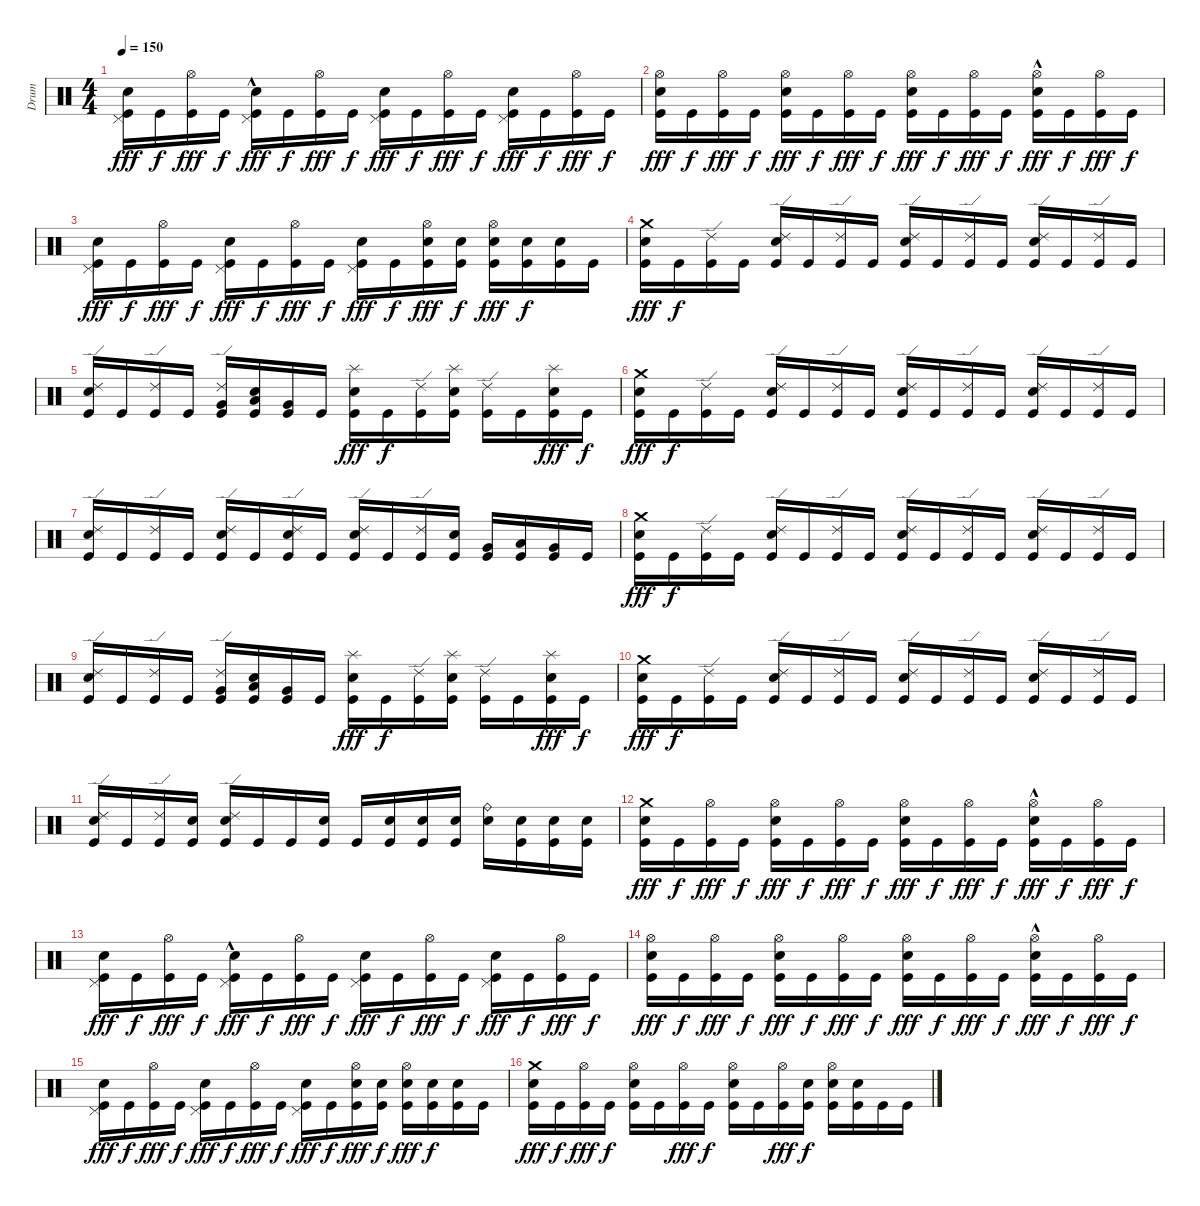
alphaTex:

\track ("Drum" "Drum") {instrument percussion}
\staff {score}
\articulation defaults
\ts (4 4)
\tempo 150
\clef neutral
\ks c
("Pedal Hi-Hat (hit)" "Snare (hit) 2" "Kick (hit)").16{dy fff} "Kick (hit)".16{dy f} ("Hi-Hat (open)" "Kick (hit)").16{dy fff} "Kick (hit)".16{dy f} ("Pedal Hi-Hat (hit)"{hac} "Snare (hit) 2" "Kick (hit)").16{dy fff} "Kick (hit)".16{dy f} ("Hi-Hat (open)" "Kick (hit)").16{dy fff} "Kick (hit)".16{dy f} ("Pedal Hi-Hat (hit)" "Snare (hit) 2" "Kick (hit)").16{dy fff} "Kick (hit)".16{dy f} ("Hi-Hat (open)" "Kick (hit)").16{dy fff} "Kick (hit)".16{dy f} ("Pedal Hi-Hat (hit)" "Snare (hit) 2" "Kick (hit)").16{dy fff} "Kick (hit)".16{dy f} ("Hi-Hat (open)" "Kick (hit)").16{dy fff} "Kick (hit)".16{dy f} |
("Hi-Hat (open)" "Snare (hit) 2" "Kick (hit)").16{dy fff} "Kick (hit)".16{dy f} ("Hi-Hat (open)" "Kick (hit)").16{dy fff} "Kick (hit)".16{dy f} ("Hi-Hat (open)" "Snare (hit) 2" "Kick (hit)").16{dy fff} "Kick (hit)".16{dy f} ("Hi-Hat (open)" "Kick (hit)").16{dy fff} "Kick (hit)".16{dy f} ("Hi-Hat (open)" "Snare (hit) 2" "Kick (hit)").16{dy fff} "Kick (hit)".16{dy f} ("Hi-Hat (open)" "Kick (hit)").16{dy fff} "Kick (hit)".16{dy f} ("Hi-Hat (open)"{hac} "Snare (hit) 2" "Kick (hit)").16{dy fff} "Kick (hit)".16{dy f} ("Hi-Hat (open)" "Kick (hit)").16{dy fff} "Kick (hit)".16{dy f} |
("Pedal Hi-Hat (hit)" "Snare (hit) 2" "Kick (hit)").16{dy fff} "Kick (hit)".16{dy f} ("Hi-Hat (open)" "Kick (hit)").16{dy fff} "Kick (hit)".16{dy f} ("Pedal Hi-Hat (hit)" "Snare (hit) 2" "Kick (hit)").16{dy fff} "Kick (hit)".16{dy f} ("Hi-Hat (open)" "Kick (hit)").16{dy fff} "Kick (hit)".16{dy f} ("Pedal Hi-Hat (hit)" "Snare (hit) 2" "Kick (hit)").16{dy fff} "Kick (hit)".16{dy f} ("Hi-Hat (open)" "Snare (hit) 2" "Kick (hit)").16{dy fff} ("Snare (hit) 2" "Kick (hit)").16{dy f} ("Hi-Hat (open)" "Snare (hit) 2" "Kick (hit)").16{dy fff} ("Snare (hit) 2" "Kick (hit)").16{dy f} ("Snare (hit) 2" "Kick (hit)").16 "Kick (hit)".16 |
("Crash medium (hit)" "Snare (hit) 2" "Kick (hit)").16{dy fff} "Kick (hit)".16{dy f} ("Ride (edge) 2" "Kick (hit)").16 "Kick (hit)".16 ("Ride (edge) 2" "Snare (hit) 2" "Kick (hit)").16 "Kick (hit)".16 ("Ride (edge) 2" "Kick (hit)").16 "Kick (hit)".16 ("Ride (edge) 2" "Snare (hit) 2" "Kick (hit)").16 "Kick (hit)".16 ("Ride (edge) 2" "Kick (hit)").16 "Kick (hit)".16 ("Ride (edge) 2" "Snare (hit) 2" "Kick (hit)").16 "Kick (hit)".16 ("Ride (edge) 2" "Kick (hit)").16 "Kick (hit)".16 |
("Ride (edge) 2" "Snare (hit) 2" "Kick (hit)").16 "Kick (hit)".16 ("Ride (edge) 2" "Kick (hit)").16 "Kick (hit)".16 ("Ride (edge) 2" "Very Low Tom (hit)" "Kick (hit)").16 ("Snare (hit) 2" "Low Floor Tom (hit)" "Kick (hit)").16 ("Very Low Tom (hit)" "Kick (hit)").16 "Kick (hit)".16 ("Splash (hit)" "Snare (hit) 2" "Kick (hit)").16{dy fff} "Kick (hit)".16{dy f} ("Ride (edge) 2" "Kick (hit)").16 ("Splash (hit)" "Snare (hit) 2" "Kick (hit)").16 ("Ride (edge) 2" "Kick (hit)").16 "Kick (hit)".16 ("Splash (hit)" "Snare (hit) 2" "Kick (hit)").16{dy fff} "Kick (hit)".16{dy f} |
("Crash medium (hit)" "Snare (hit) 2" "Kick (hit)").16{dy fff} "Kick (hit)".16{dy f} ("Ride (edge) 2" "Kick (hit)").16 "Kick (hit)".16 ("Ride (edge) 2" "Snare (hit) 2" "Kick (hit)").16 "Kick (hit)".16 ("Ride (edge) 2" "Kick (hit)").16 "Kick (hit)".16 ("Ride (edge) 2" "Snare (hit) 2" "Kick (hit)").16 "Kick (hit)".16 ("Ride (edge) 2" "Kick (hit)").16 "Kick (hit)".16 ("Ride (edge) 2" "Snare (hit) 2" "Kick (hit)").16 "Kick (hit)".16 ("Ride (edge) 2" "Kick (hit)").16 "Kick (hit)".16 |
("Ride (edge) 2" "Snare (hit) 2" "Kick (hit)").16 "Kick (hit)".16 ("Ride (edge) 2" "Kick (hit)").16 "Kick (hit)".16 ("Ride (edge) 2" "Snare (hit) 2" "Kick (hit)").16 "Kick (hit)".16 ("Ride (edge) 2" "Snare (hit) 2" "Kick (hit)").16 "Kick (hit)".16 ("Ride (edge) 2" "Snare (hit) 2" "Kick (hit)").16 "Kick (hit)".16 ("Ride (edge) 2" "Kick (hit)").16 ("Snare (hit) 2" "Kick (hit)").16 ("Very Low Tom (hit)" "Kick (hit)").16 ("Low Floor Tom (hit)" "Kick (hit)").16 ("Very Low Tom (hit)" "Kick (hit)").16 "Kick (hit)".16 |
("Crash medium (hit)" "Snare (hit) 2" "Kick (hit)").16{dy fff} "Kick (hit)".16{dy f} ("Ride (edge) 2" "Kick (hit)").16 "Kick (hit)".16 ("Ride (edge) 2" "Snare (hit) 2" "Kick (hit)").16 "Kick (hit)".16 ("Ride (edge) 2" "Kick (hit)").16 "Kick (hit)".16 ("Ride (edge) 2" "Snare (hit) 2" "Kick (hit)").16 "Kick (hit)".16 ("Ride (edge) 2" "Kick (hit)").16 "Kick (hit)".16 ("Ride (edge) 2" "Snare (hit) 2" "Kick (hit)").16 "Kick (hit)".16 ("Ride (edge) 2" "Kick (hit)").16 "Kick (hit)".16 |
("Ride (edge) 2" "Snare (hit) 2" "Kick (hit)").16 "Kick (hit)".16 ("Ride (edge) 2" "Kick (hit)").16 "Kick (hit)".16 ("Ride (edge) 2" "Very Low Tom (hit)" "Kick (hit)").16 ("Snare (hit) 2" "Low Floor Tom (hit)" "Kick (hit)").16 ("Very Low Tom (hit)" "Kick (hit)").16 "Kick (hit)".16 ("Splash (hit)" "Snare (hit) 2" "Kick (hit)").16{dy fff} "Kick (hit)".16{dy f} ("Ride (edge) 2" "Kick (hit)").16 ("Splash (hit)" "Snare (hit) 2" "Kick (hit)").16 ("Ride (edge) 2" "Kick (hit)").16 "Kick (hit)".16 ("Splash (hit)" "Snare (hit) 2" "Kick (hit)").16{dy fff} "Kick (hit)".16{dy f} |
("Crash medium (hit)" "Snare (hit) 2" "Kick (hit)").16{dy fff} "Kick (hit)".16{dy f} ("Ride (edge) 2" "Kick (hit)").16 "Kick (hit)".16 ("Ride (edge) 2" "Snare (hit) 2" "Kick (hit)").16 "Kick (hit)".16 ("Ride (edge) 2" "Kick (hit)").16 "Kick (hit)".16 ("Ride (edge) 2" "Snare (hit) 2" "Kick (hit)").16 "Kick (hit)".16 ("Ride (edge) 2" "Kick (hit)").16 "Kick (hit)".16 ("Ride (edge) 2" "Snare (hit) 2" "Kick (hit)").16 "Kick (hit)".16 ("Ride (edge) 2" "Kick (hit)").16 "Kick (hit)".16 |
("Ride (edge) 2" "Snare (hit) 2" "Kick (hit)").16 "Kick (hit)".16 ("Ride (edge) 2" "Kick (hit)").16 ("Snare (hit) 2" "Kick (hit)").16 ("Ride (edge) 2" "Snare (hit) 2" "Kick (hit)").16 "Kick (hit)".16 "Kick (hit)".16 ("Snare (hit) 2" "Kick (hit)").16 "Kick (hit)".16 ("Snare (hit) 2" "Kick (hit)").16 ("Snare (hit) 2" "Kick (hit)").16 ("Snare (hit) 2" "Kick (hit)").16 ("Snare (hit) 2" "Ride (bell)").16 ("Snare (hit) 2" "Kick (hit)").16 ("Snare (hit) 2" "Kick (hit)").16 ("Snare (hit) 2" "Kick (hit)").16 |
("Crash medium (hit)" "Snare (hit) 2" "Kick (hit)").16{dy fff} "Kick (hit)".16{dy f} ("Hi-Hat (open)" "Kick (hit)").16{dy fff} "Kick (hit)".16{dy f} ("Hi-Hat (open)" "Snare (hit) 2" "Kick (hit)").16{dy fff} "Kick (hit)".16{dy f} ("Hi-Hat (open)" "Kick (hit)").16{dy fff} "Kick (hit)".16{dy f} ("Hi-Hat (open)" "Snare (hit) 2" "Kick (hit)").16{dy fff} "Kick (hit)".16{dy f} ("Hi-Hat (open)" "Kick (hit)").16{dy fff} "Kick (hit)".16{dy f} ("Hi-Hat (open)"{hac} "Snare (hit) 2" "Kick (hit)").16{dy fff} "Kick (hit)".16{dy f} ("Hi-Hat (open)" "Kick (hit)").16{dy fff} "Kick (hit)".16{dy f} |
("Pedal Hi-Hat (hit)" "Snare (hit) 2" "Kick (hit)").16{dy fff} "Kick (hit)".16{dy f} ("Hi-Hat (open)" "Kick (hit)").16{dy fff} "Kick (hit)".16{dy f} ("Pedal Hi-Hat (hit)"{hac} "Snare (hit) 2" "Kick (hit)").16{dy fff} "Kick (hit)".16{dy f} ("Hi-Hat (open)" "Kick (hit)").16{dy fff} "Kick (hit)".16{dy f} ("Pedal Hi-Hat (hit)" "Snare (hit) 2" "Kick (hit)").16{dy fff} "Kick (hit)".16{dy f} ("Hi-Hat (open)" "Kick (hit)").16{dy fff} "Kick (hit)".16{dy f} ("Pedal Hi-Hat (hit)" "Snare (hit) 2" "Kick (hit)").16{dy fff} "Kick (hit)".16{dy f} ("Hi-Hat (open)" "Kick (hit)").16{dy fff} "Kick (hit)".16{dy f} |
("Hi-Hat (open)" "Snare (hit) 2" "Kick (hit)").16{dy fff} "Kick (hit)".16{dy f} ("Hi-Hat (open)" "Kick (hit)").16{dy fff} "Kick (hit)".16{dy f} ("Hi-Hat (open)" "Snare (hit) 2" "Kick (hit)").16{dy fff} "Kick (hit)".16{dy f} ("Hi-Hat (open)" "Kick (hit)").16{dy fff} "Kick (hit)".16{dy f} ("Hi-Hat (open)" "Snare (hit) 2" "Kick (hit)").16{dy fff} "Kick (hit)".16{dy f} ("Hi-Hat (open)" "Kick (hit)").16{dy fff} "Kick (hit)".16{dy f} ("Hi-Hat (open)"{hac} "Snare (hit) 2" "Kick (hit)").16{dy fff} "Kick (hit)".16{dy f} ("Hi-Hat (open)" "Kick (hit)").16{dy fff} "Kick (hit)".16{dy f} |
("Pedal Hi-Hat (hit)" "Snare (hit) 2" "Kick (hit)").16{dy fff} "Kick (hit)".16{dy f} ("Hi-Hat (open)" "Kick (hit)").16{dy fff} "Kick (hit)".16{dy f} ("Pedal Hi-Hat (hit)" "Snare (hit) 2" "Kick (hit)").16{dy fff} "Kick (hit)".16{dy f} ("Hi-Hat (open)" "Kick (hit)").16{dy fff} "Kick (hit)".16{dy f} ("Pedal Hi-Hat (hit)" "Snare (hit) 2" "Kick (hit)").16{dy fff} "Kick (hit)".16{dy f} ("Hi-Hat (open)" "Snare (hit) 2" "Kick (hit)").16{dy fff} ("Snare (hit) 2" "Kick (hit)").16{dy f} ("Hi-Hat (open)" "Snare (hit) 2" "Kick (hit)").16{dy fff} ("Snare (hit) 2" "Kick (hit)").16{dy f} ("Snare (hit) 2" "Kick (hit)").16 "Kick (hit)".16 |
("Crash medium (hit)" "Snare (hit) 2" "Kick (hit)").16{dy fff} "Kick (hit)".16{dy f} ("Hi-Hat (open)" "Kick (hit)").16{dy fff} "Kick (hit)".16{dy f} ("Hi-Hat (open)" "Snare (hit) 2" "Kick (hit)").16 "Kick (hit)".16 ("Hi-Hat (open)" "Kick (hit)").16{dy fff} "Kick (hit)".16{dy f} ("Hi-Hat (open)" "Snare (hit) 2" "Kick (hit)").16 "Kick (hit)".16 ("Hi-Hat (open)" "Kick (hit)").16{dy fff} ("Snare (hit) 2" "Kick (hit)").16{dy f} ("Hi-Hat (open)" "Snare (hit) 2" "Kick (hit)").16 ("Snare (hit) 2" "Kick (hit)").16 "Kick (hit)".16 "Kick (hit)".16
